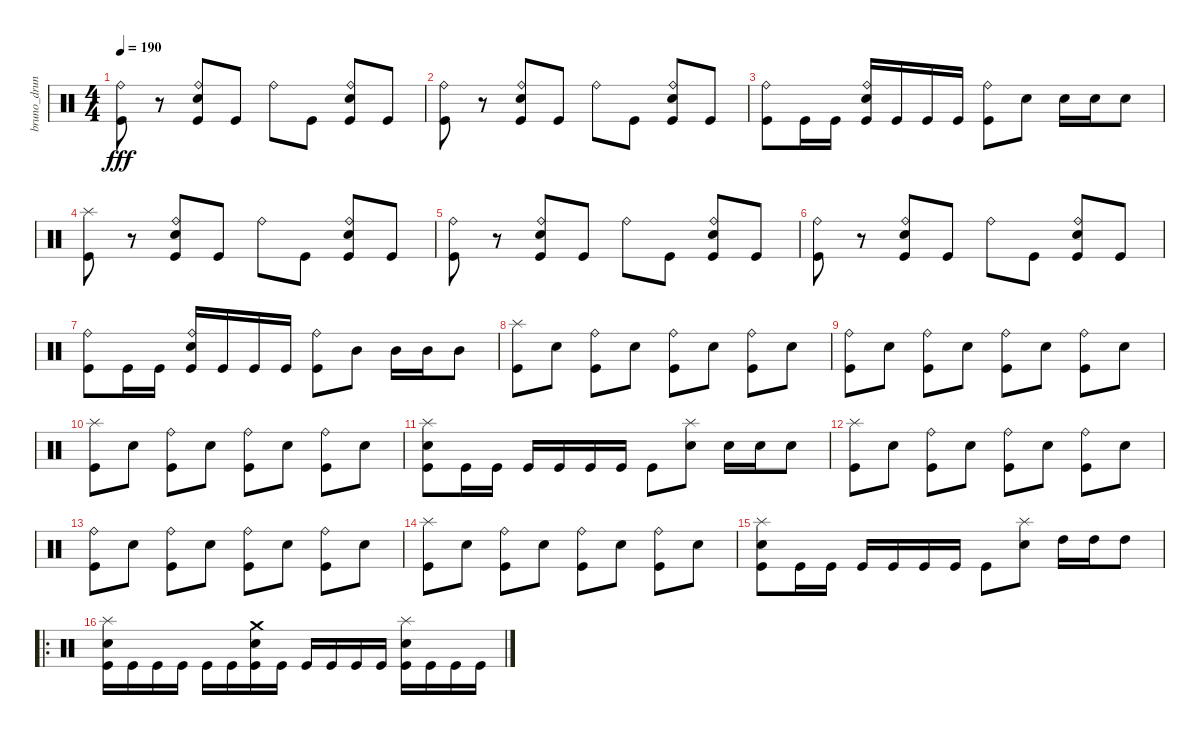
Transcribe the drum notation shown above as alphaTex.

\track ("bruno_druns" "bruno_drun") {instrument percussion}
\staff {score}
\articulation defaults
\ts (4 4)
\tempo 190
\clef neutral
\ks c
("Kick (hit)" "Ride (bell)").8{dy fff} r.8 ("Kick (hit)" "Electric Snare (hit)" "Ride (bell)").8 "Kick (hit)".8 "Ride (bell)".8 "Kick (hit)".8 ("Kick (hit)" "Electric Snare (hit)" "Ride (bell)").8 "Kick (hit)".8 |
("Kick (hit)" "Ride (bell)").8 r.8 ("Kick (hit)" "Electric Snare (hit)" "Ride (bell)").8 "Kick (hit)".8 "Ride (bell)".8 "Kick (hit)".8 ("Kick (hit)" "Electric Snare (hit)" "Ride (bell)").8 "Kick (hit)".8 |
("Kick (hit)" "Ride (bell)").8 "Kick (hit)".16 "Kick (hit)".16 ("Kick (hit)" "Electric Snare (hit)" "Ride (bell)").16 "Kick (hit)".16 "Kick (hit)".16 "Kick (hit)".16 ("Kick (hit)" "Ride (bell)").8 "Electric Snare (hit)".8 "Electric Snare (hit)".16 "Electric Snare (hit)".16 "Electric Snare (hit)".8 |
("Kick (hit)" "Splash (hit)").8 r.8 ("Kick (hit)" "Electric Snare (hit)" "Ride (bell)").8 "Kick (hit)".8 "Ride (bell)".8 "Kick (hit)".8 ("Kick (hit)" "Electric Snare (hit)" "Ride (bell)").8 "Kick (hit)".8 |
("Kick (hit)" "Ride (bell)").8 r.8 ("Kick (hit)" "Electric Snare (hit)" "Ride (bell)").8 "Kick (hit)".8 "Ride (bell)".8 "Kick (hit)".8 ("Kick (hit)" "Electric Snare (hit)" "Ride (bell)").8 "Kick (hit)".8 |
("Kick (hit)" "Ride (bell)").8 r.8 ("Kick (hit)" "Electric Snare (hit)" "Ride (bell)").8 "Kick (hit)".8 "Ride (bell)".8 "Kick (hit)".8 ("Kick (hit)" "Electric Snare (hit)" "Ride (bell)").8 "Kick (hit)".8 |
("Kick (hit)" "Ride (bell)").8 "Kick (hit)".16 "Kick (hit)".16 ("Kick (hit)" "Electric Snare (hit)" "Ride (bell)").16 "Kick (hit)".16 "Kick (hit)".16 "Kick (hit)".16 ("Kick (hit)" "Ride (bell)").8 "Mid Tom (hit)".8 "Mid Tom (hit)".16 "Mid Tom (hit)".16 "Mid Tom (hit)".8 |
("Kick (hit)" "Splash (hit)").8 "Electric Snare (hit)".8 ("Kick (hit)" "Ride (bell)").8 "Electric Snare (hit)".8 ("Kick (hit)" "Ride (bell)").8 "Electric Snare (hit)".8 ("Kick (hit)" "Ride (bell)").8 "Electric Snare (hit)".8 |
("Kick (hit)" "Ride (bell)").8 "Electric Snare (hit)".8 ("Kick (hit)" "Ride (bell)").8 "Electric Snare (hit)".8 ("Kick (hit)" "Ride (bell)").8 "Electric Snare (hit)".8 ("Kick (hit)" "Ride (bell)").8 "Electric Snare (hit)".8 |
("Kick (hit)" "Splash (hit)").8 "Electric Snare (hit)".8 ("Kick (hit)" "Ride (bell)").8 "Electric Snare (hit)".8 ("Kick (hit)" "Ride (bell)").8 "Electric Snare (hit)".8 ("Kick (hit)" "Ride (bell)").8 "Electric Snare (hit)".8 |
("Kick (hit)" "Electric Snare (hit)" "Splash (hit)").8 "Kick (hit)".16 "Kick (hit)".16 "Kick (hit)".16 "Kick (hit)".16 "Kick (hit)".16 "Kick (hit)".16 "Kick (hit)".8 ("Electric Snare (hit)" "Splash (hit)").8 "Electric Snare (hit)".16 "Electric Snare (hit)".16 "Electric Snare (hit)".8 |
("Kick (hit)" "Splash (hit)").8 "Electric Snare (hit)".8 ("Kick (hit)" "Ride (bell)").8 "Electric Snare (hit)".8 ("Kick (hit)" "Ride (bell)").8 "Electric Snare (hit)".8 ("Kick (hit)" "Ride (bell)").8 "Electric Snare (hit)".8 |
("Kick (hit)" "Ride (bell)").8 "Electric Snare (hit)".8 ("Kick (hit)" "Ride (bell)").8 "Electric Snare (hit)".8 ("Kick (hit)" "Ride (bell)").8 "Electric Snare (hit)".8 ("Kick (hit)" "Ride (bell)").8 "Electric Snare (hit)".8 |
("Kick (hit)" "Splash (hit)").8 "Electric Snare (hit)".8 ("Kick (hit)" "Ride (bell)").8 "Electric Snare (hit)".8 ("Kick (hit)" "Ride (bell)").8 "Electric Snare (hit)".8 ("Kick (hit)" "Ride (bell)").8 "Electric Snare (hit)".8 |
("Kick (hit)" "Electric Snare (hit)" "Splash (hit)").8 "Kick (hit)".16 "Kick (hit)".16 "Kick (hit)".16 "Kick (hit)".16 "Kick (hit)".16 "Kick (hit)".16 "Kick (hit)".8 ("Electric Snare (hit)" "Splash (hit)").8 "High Tom (hit)".16 "High Tom (hit)".16 "High Tom (hit)".8 |
\ro
("Kick (hit)" "Electric Snare (hit)" "Splash (hit)").16 "Kick (hit)".16 "Kick (hit)".16 "Kick (hit)".16 "Kick (hit)".16 "Kick (hit)".16 ("Kick (hit)" "Electric Snare (hit)" "Crash medium (hit)").16 "Kick (hit)".16 "Kick (hit)".16 "Kick (hit)".16 "Kick (hit)".16 "Kick (hit)".16 ("Kick (hit)" "Electric Snare (hit)" "Splash (hit)").16 "Kick (hit)".16 "Kick (hit)".16 "Kick (hit)".16
